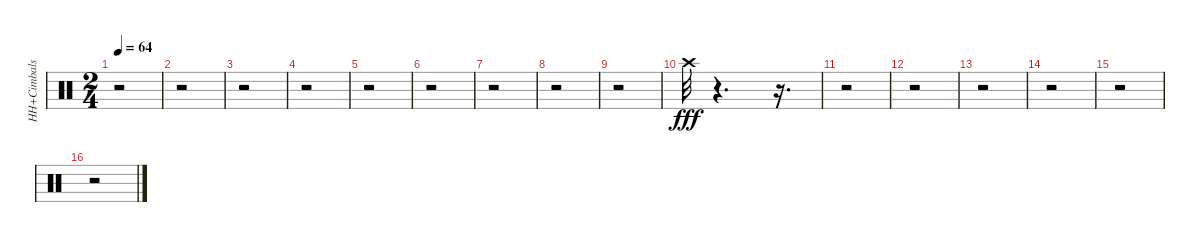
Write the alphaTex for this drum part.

\track ("HH+Cimbals" "HH+Cimbals") {instrument percussion}
\staff {score}
\articulation defaults
\ts (2 4)
\tempo 64
\clef neutral
\ks c
r.2{dy fff} |
r.2 |
r.2 |
r.2 |
r.2 |
r.2 |
r.2 |
r.2 |
r.2 |
"Crash high (hit)".32 r.4{d} r.16{d} |
r.2 |
r.2 |
r.2 |
r.2 |
r.2 |
r.2
